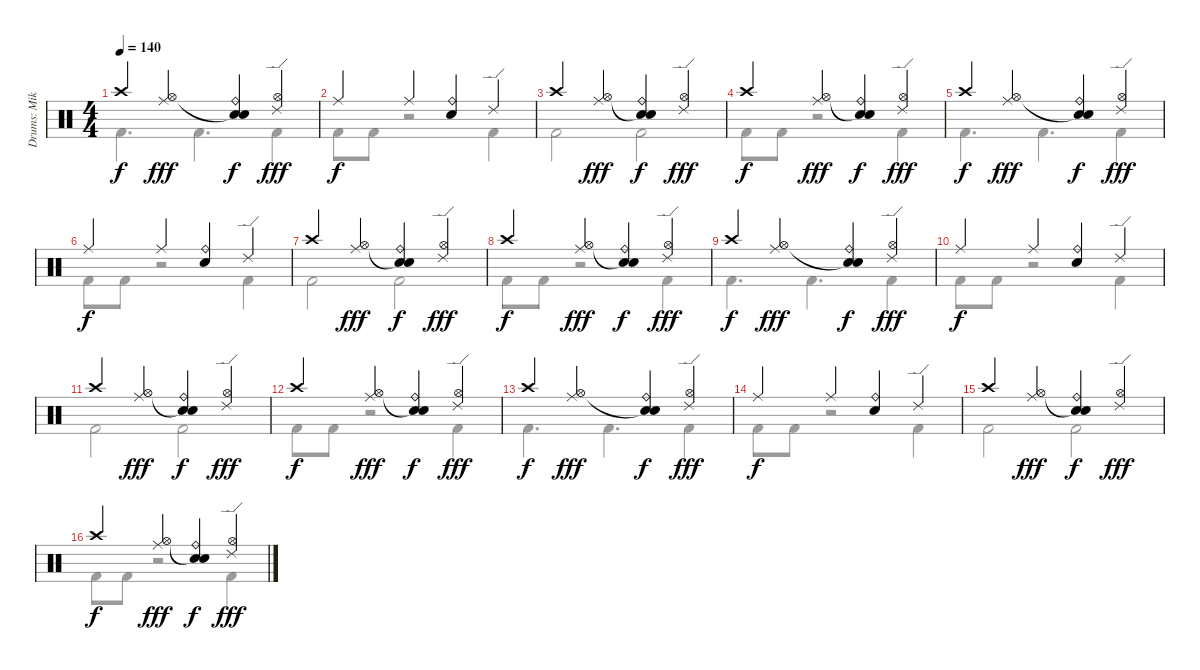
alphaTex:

\track ("Drums: Mike" "Drums: Mik") {instrument percussion}
\staff {score}
\articulation defaults
\voice
\ts (4 4)
\tempo 140
\clef neutral
\ks c "Crash high (hit)".4{dy f}
("Ride (middle)" "Hi-Hat (open)").4{dy fff} ("Ride (bell)" "Snare (hit)"{t} "Snare (hit) 2").4{dy f} ("Ride (edge) 2" "Hi-Hat (open)").4{dy fff} |
"Ride (middle)".4{dy f} "Ride (middle)".4 ("Ride (bell)" "Snare (hit) 2").4 "Ride (edge) 2".4 |
"Crash high (hit)".4 ("Ride (middle)" "Hi-Hat (open)").4{dy fff} ("Ride (bell)" "Snare (hit)"{t} "Snare (hit) 2").4{dy f} ("Ride (edge) 2" "Hi-Hat (open)").4{dy fff} |
"Crash high (hit)".4{dy f} ("Ride (middle)" "Hi-Hat (open)").4{dy fff} ("Ride (bell)" "Snare (hit)"{t} "Snare (hit) 2").4{dy f} ("Ride (edge) 2" "Hi-Hat (open)").4{dy fff} |
"Crash high (hit)".4{dy f} ("Ride (middle)" "Hi-Hat (open)").4{dy fff} ("Ride (bell)" "Snare (hit)"{t} "Snare (hit) 2").4{dy f} ("Ride (edge) 2" "Hi-Hat (open)").4{dy fff} |
"Ride (middle)".4{dy f} "Ride (middle)".4 ("Ride (bell)" "Snare (hit) 2").4 "Ride (edge) 2".4 |
"Crash high (hit)".4 ("Ride (middle)" "Hi-Hat (open)").4{dy fff} ("Ride (bell)" "Snare (hit)"{t} "Snare (hit) 2").4{dy f} ("Ride (edge) 2" "Hi-Hat (open)").4{dy fff} |
"Crash high (hit)".4{dy f} ("Ride (middle)" "Hi-Hat (open)").4{dy fff} ("Ride (bell)" "Snare (hit)"{t} "Snare (hit) 2").4{dy f} ("Ride (edge) 2" "Hi-Hat (open)").4{dy fff} |
"Crash high (hit)".4{dy f} ("Ride (middle)" "Hi-Hat (open)").4{dy fff} ("Ride (bell)" "Snare (hit)"{t} "Snare (hit) 2").4{dy f} ("Ride (edge) 2" "Hi-Hat (open)").4{dy fff} |
"Ride (middle)".4{dy f} "Ride (middle)".4 ("Ride (bell)" "Snare (hit) 2").4 "Ride (edge) 2".4 |
"Crash high (hit)".4 ("Ride (middle)" "Hi-Hat (open)").4{dy fff} ("Ride (bell)" "Snare (hit)"{t} "Snare (hit) 2").4{dy f} ("Ride (edge) 2" "Hi-Hat (open)").4{dy fff} |
"Crash high (hit)".4{dy f} ("Ride (middle)" "Hi-Hat (open)").4{dy fff} ("Ride (bell)" "Snare (hit)"{t} "Snare (hit) 2").4{dy f} ("Ride (edge) 2" "Hi-Hat (open)").4{dy fff} |
"Crash high (hit)".4{dy f} ("Ride (middle)" "Hi-Hat (open)").4{dy fff} ("Ride (bell)" "Snare (hit)"{t} "Snare (hit) 2").4{dy f} ("Ride (edge) 2" "Hi-Hat (open)").4{dy fff} |
"Ride (middle)".4{dy f} "Ride (middle)".4 ("Ride (bell)" "Snare (hit) 2").4 "Ride (edge) 2".4 |
"Crash high (hit)".4 ("Ride (middle)" "Hi-Hat (open)").4{dy fff} ("Ride (bell)" "Snare (hit)"{t} "Snare (hit) 2").4{dy f} ("Ride (edge) 2" "Hi-Hat (open)").4{dy fff} |
"Crash high (hit)".4{dy f} ("Ride (middle)" "Hi-Hat (open)").4{dy fff} ("Ride (bell)" "Snare (hit)"{t} "Snare (hit) 2").4{dy f} ("Ride (edge) 2" "Hi-Hat (open)").4{dy fff}
\voice
\clef neutral
\ottava regular
\simile none
\ks c "Kick (hit) 2".4{d dy f} "Kick (hit) 2".4{d} "Kick (hit) 2".4{dy fff}
|
"Kick (hit) 2".8{dy f} "Kick (hit) 2".8 r.2 "Kick (hit) 2".4 |
"Kick (hit) 2".2 "Kick (hit) 2".2 |
"Kick (hit) 2".8 "Kick (hit) 2".8 r.2 "Kick (hit) 2".4 |
"Kick (hit) 2".4{d} "Kick (hit) 2".4{d} "Kick (hit) 2".4{dy fff} |
"Kick (hit) 2".8{dy f} "Kick (hit) 2".8 r.2 "Kick (hit) 2".4 |
"Kick (hit) 2".2 "Kick (hit) 2".2 |
"Kick (hit) 2".8 "Kick (hit) 2".8 r.2 "Kick (hit) 2".4 |
"Kick (hit) 2".4{d} "Kick (hit) 2".4{d} "Kick (hit) 2".4{dy fff} |
"Kick (hit) 2".8{dy f} "Kick (hit) 2".8 r.2 "Kick (hit) 2".4 |
"Kick (hit) 2".2 "Kick (hit) 2".2 |
"Kick (hit) 2".8 "Kick (hit) 2".8 r.2 "Kick (hit) 2".4 |
"Kick (hit) 2".4{d} "Kick (hit) 2".4{d} "Kick (hit) 2".4{dy fff} |
"Kick (hit) 2".8{dy f} "Kick (hit) 2".8 r.2 "Kick (hit) 2".4 |
"Kick (hit) 2".2 "Kick (hit) 2".2 |
"Kick (hit) 2".8 "Kick (hit) 2".8 r.2 "Kick (hit) 2".4
